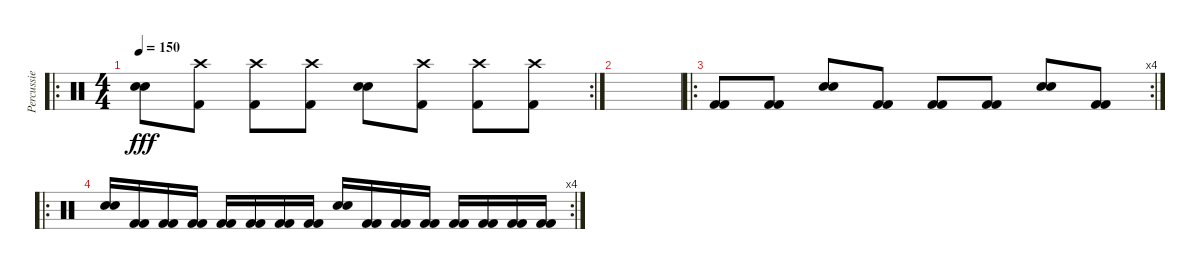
\track ("Percussie" "Percussie") {instrument percussion}
\staff {score}
\articulation defaults
\ro
\rc 2
\ts (4 4)
\tempo 150
\clef neutral
\ks c
("Snare (hit) 2" "Snare (hit) 2").8{bd 480 dy fff} ("Crash high (hit)" "Kick (hit) 2").8 ("Crash high (hit)" "Kick (hit) 2").8 ("Crash high (hit)" "Kick (hit) 2").8 ("Snare (hit) 2" "Snare (hit) 2").8{bd 480} ("Crash high (hit)" "Kick (hit) 2").8 ("Crash high (hit)" "Kick (hit) 2").8 ("Crash high (hit)" "Kick (hit) 2").8 |
|
\ro
\rc 4
("Kick (hit) 2" "Kick (hit) 2").8 ("Kick (hit) 2" "Kick (hit) 2").8 ("Snare (hit) 2" "Snare (hit) 2").8{bd 480} ("Kick (hit) 2" "Kick (hit) 2").8 ("Kick (hit) 2" "Kick (hit) 2").8 ("Kick (hit) 2" "Kick (hit) 2").8 ("Snare (hit) 2" "Snare (hit) 2").8{bd 480} ("Kick (hit) 2" "Kick (hit) 2").8 |
\ro
\rc 4
("Snare (hit) 2" "Snare (hit) 2").16{bd 480} ("Kick (hit) 2" "Kick (hit) 2").16 ("Kick (hit) 2" "Kick (hit) 2").16 ("Kick (hit) 2" "Kick (hit) 2").16 ("Kick (hit) 2" "Kick (hit) 2").16 ("Kick (hit) 2" "Kick (hit) 2").16 ("Kick (hit) 2" "Kick (hit) 2").16 ("Kick (hit) 2" "Kick (hit) 2").16 ("Snare (hit) 2" "Snare (hit) 2").16{bd 480} ("Kick (hit) 2" "Kick (hit) 2").16 ("Kick (hit) 2" "Kick (hit) 2").16 ("Kick (hit) 2" "Kick (hit) 2").16 ("Kick (hit) 2" "Kick (hit) 2").16 ("Kick (hit) 2" "Kick (hit) 2").16 ("Kick (hit) 2" "Kick (hit) 2").16 ("Kick (hit) 2" "Kick (hit) 2").16
